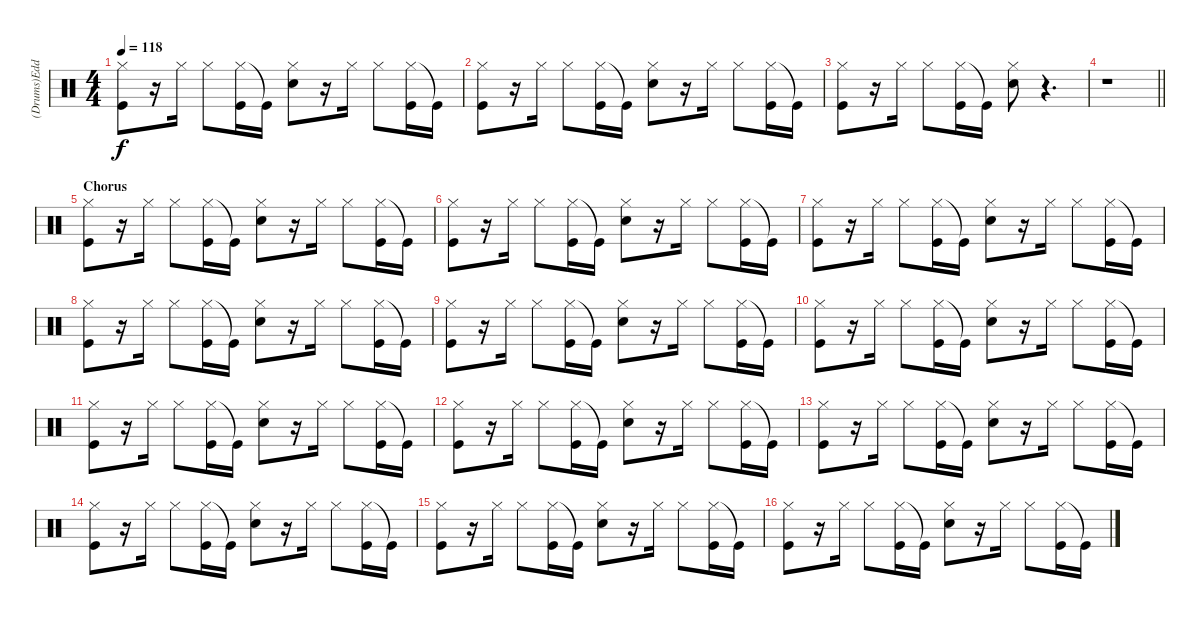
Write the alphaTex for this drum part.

\track ("(Drums)Eddie Fisher" "(Drums)Edd") {instrument percussion}
\staff {score}
\articulation defaults
\ts (4 4)
\tempo 118
\clef neutral
\ks c
("Hi-Hat (closed)" "Kick (hit)").8{dy f} r.16 "Hi-Hat (closed)".16 "Hi-Hat (closed)".8 ("Hi-Hat (closed)" "Kick (hit)").16 "Kick (hit)"{t}.16 ("Hi-Hat (closed)" "Hand Clap (hit)").8 r.16 "Hi-Hat (closed)".16 "Hi-Hat (closed)".8 ("Hi-Hat (closed)" "Kick (hit)").16 "Kick (hit)"{t}.16 |
("Hi-Hat (closed)" "Kick (hit)").8 r.16 "Hi-Hat (closed)".16 "Hi-Hat (closed)".8 ("Hi-Hat (closed)" "Kick (hit)").16 "Kick (hit)"{t}.16 ("Hi-Hat (closed)" "Hand Clap (hit)").8 r.16 "Hi-Hat (closed)".16 "Hi-Hat (closed)".8 ("Hi-Hat (closed)" "Kick (hit)").16 "Kick (hit)"{t}.16 |
("Kick (hit)" "Hi-Hat (closed)").8 r.16 "Hi-Hat (closed)".16 "Hi-Hat (closed)".8 ("Hi-Hat (closed)" "Kick (hit)").16 "Kick (hit)"{t}.16 ("Hi-Hat (closed)" "Hand Clap (hit)").8 r.4{d} |
\barLineRight lightlight
r.1 |
\section ("" "Chorus")
("Kick (hit)" "Hi-Hat (closed)").8 r.16 "Hi-Hat (closed)".16 "Hi-Hat (closed)".8 ("Hi-Hat (closed)" "Kick (hit)").16 "Kick (hit)"{t}.16 ("Hi-Hat (closed)" "Hand Clap (hit)").8 r.16 "Hi-Hat (closed)".16 "Hi-Hat (closed)".8 ("Hi-Hat (closed)" "Kick (hit)").16 "Kick (hit)"{t}.16 |
("Hi-Hat (closed)" "Kick (hit)").8 r.16 "Hi-Hat (closed)".16 "Hi-Hat (closed)".8 ("Hi-Hat (closed)" "Kick (hit)").16 "Kick (hit)"{t}.16 ("Hi-Hat (closed)" "Hand Clap (hit)").8 r.16 "Hi-Hat (closed)".16 "Hi-Hat (closed)".8 ("Hi-Hat (closed)" "Kick (hit)").16 "Kick (hit)"{t}.16 |
("Kick (hit)" "Hi-Hat (closed)").8 r.16 "Hi-Hat (closed)".16 "Hi-Hat (closed)".8 ("Hi-Hat (closed)" "Kick (hit)").16 "Kick (hit)"{t}.16 ("Hi-Hat (closed)" "Hand Clap (hit)").8 r.16 "Hi-Hat (closed)".16 "Hi-Hat (closed)".8 ("Hi-Hat (closed)" "Kick (hit)").16 "Kick (hit)"{t}.16 |
("Kick (hit)" "Hi-Hat (closed)").8 r.16 "Hi-Hat (closed)".16 "Hi-Hat (closed)".8 ("Hi-Hat (closed)" "Kick (hit)").16 "Kick (hit)"{t}.16 ("Hi-Hat (closed)" "Hand Clap (hit)").8 r.16 "Hi-Hat (closed)".16 "Hi-Hat (closed)".8 ("Hi-Hat (closed)" "Kick (hit)").16 "Kick (hit)"{t}.16 |
("Hi-Hat (closed)" "Kick (hit)").8 r.16 "Hi-Hat (closed)".16 "Hi-Hat (closed)".8 ("Hi-Hat (closed)" "Kick (hit)").16 "Kick (hit)"{t}.16 ("Hi-Hat (closed)" "Hand Clap (hit)").8 r.16 "Hi-Hat (closed)".16 "Hi-Hat (closed)".8 ("Hi-Hat (closed)" "Kick (hit)").16 "Kick (hit)"{t}.16 |
("Kick (hit)" "Hi-Hat (closed)").8 r.16 "Hi-Hat (closed)".16 "Hi-Hat (closed)".8 ("Hi-Hat (closed)" "Kick (hit)").16 "Kick (hit)"{t}.16 ("Hi-Hat (closed)" "Hand Clap (hit)").8 r.16 "Hi-Hat (closed)".16 "Hi-Hat (closed)".8 ("Hi-Hat (closed)" "Kick (hit)").16 "Kick (hit)"{t}.16 |
("Hi-Hat (closed)" "Kick (hit)").8 r.16 "Hi-Hat (closed)".16 "Hi-Hat (closed)".8 ("Hi-Hat (closed)" "Kick (hit)").16 "Kick (hit)"{t}.16 ("Hi-Hat (closed)" "Hand Clap (hit)").8 r.16 "Hi-Hat (closed)".16 "Hi-Hat (closed)".8 ("Hi-Hat (closed)" "Kick (hit)").16 "Kick (hit)"{t}.16 |
("Kick (hit)" "Hi-Hat (closed)").8 r.16 "Hi-Hat (closed)".16 "Hi-Hat (closed)".8 ("Hi-Hat (closed)" "Kick (hit)").16 "Kick (hit)"{t}.16 ("Hi-Hat (closed)" "Hand Clap (hit)").8 r.16 "Hi-Hat (closed)".16 "Hi-Hat (closed)".8 ("Hi-Hat (closed)" "Kick (hit)").16 "Kick (hit)"{t}.16 |
("Hi-Hat (closed)" "Kick (hit)").8 r.16 "Hi-Hat (closed)".16 "Hi-Hat (closed)".8 ("Hi-Hat (closed)" "Kick (hit)").16 "Kick (hit)"{t}.16 ("Hi-Hat (closed)" "Hand Clap (hit)").8 r.16 "Hi-Hat (closed)".16 "Hi-Hat (closed)".8 ("Hi-Hat (closed)" "Kick (hit)").16 "Kick (hit)"{t}.16 |
("Kick (hit)" "Hi-Hat (closed)").8 r.16 "Hi-Hat (closed)".16 "Hi-Hat (closed)".8 ("Hi-Hat (closed)" "Kick (hit)").16 "Kick (hit)"{t}.16 ("Hi-Hat (closed)" "Hand Clap (hit)").8 r.16 "Hi-Hat (closed)".16 "Hi-Hat (closed)".8 ("Hi-Hat (closed)" "Kick (hit)").16 "Kick (hit)"{t}.16 |
("Hi-Hat (closed)" "Kick (hit)").8 r.16 "Hi-Hat (closed)".16 "Hi-Hat (closed)".8 ("Hi-Hat (closed)" "Kick (hit)").16 "Kick (hit)"{t}.16 ("Hi-Hat (closed)" "Hand Clap (hit)").8 r.16 "Hi-Hat (closed)".16 "Hi-Hat (closed)".8 ("Hi-Hat (closed)" "Kick (hit)").16 "Kick (hit)"{t}.16 |
("Kick (hit)" "Hi-Hat (closed)").8 r.16 "Hi-Hat (closed)".16 "Hi-Hat (closed)".8 ("Hi-Hat (closed)" "Kick (hit)").16 "Kick (hit)"{t}.16 ("Hi-Hat (closed)" "Hand Clap (hit)").8 r.16 "Hi-Hat (closed)".16 "Hi-Hat (closed)".8 ("Hi-Hat (closed)" "Kick (hit)").16 "Kick (hit)"{t}.16
